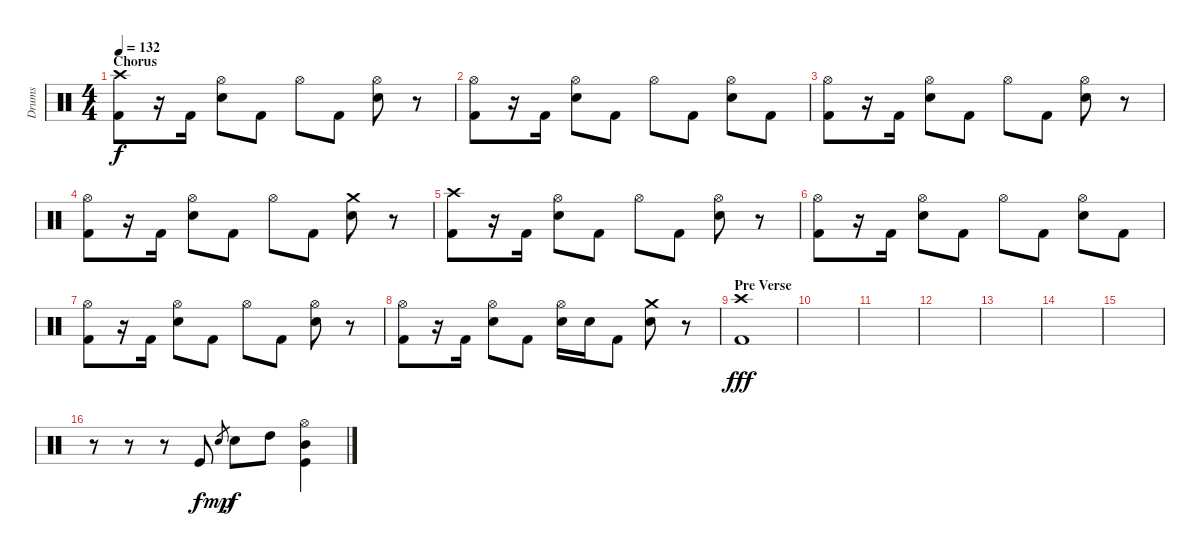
\track ("Drums" "Drums") {instrument percussion}
\staff {score}
\articulation defaults
\ts (4 4)
\section ("" "Chorus")
\tempo 132
\clef neutral
\ks c
("Crash high (hit)" "Kick (hit) 2").8{dy f} r.16 "Kick (hit) 2".16 ("Hi-Hat (open)" "Snare (hit) 2").8 "Kick (hit) 2".8 "Hi-Hat (open)".8 "Kick (hit) 2".8 ("Hi-Hat (open)" "Snare (hit) 2").8 r.8 |
("Hi-Hat (open)" "Kick (hit) 2").8 r.16 "Kick (hit) 2".16 ("Hi-Hat (open)" "Snare (hit) 2").8 "Kick (hit) 2".8 "Hi-Hat (open)".8 "Kick (hit) 2".8 ("Hi-Hat (open)" "Snare (hit) 2").8 "Kick (hit) 2".8 |
("Hi-Hat (open)" "Kick (hit) 2").8 r.16 "Kick (hit) 2".16 ("Hi-Hat (open)" "Snare (hit) 2").8 "Kick (hit) 2".8 "Hi-Hat (open)".8 "Kick (hit) 2".8 ("Hi-Hat (open)" "Snare (hit) 2").8 r.8 |
("Hi-Hat (open)" "Kick (hit) 2").8 r.16 "Kick (hit) 2".16 ("Hi-Hat (open)" "Snare (hit) 2").8 "Kick (hit) 2".8 "Hi-Hat (open)".8 "Kick (hit) 2".8 ("Crash medium (hit)" "Snare (hit) 2").8 r.8 |
("Crash high (hit)" "Kick (hit) 2").8 r.16 "Kick (hit) 2".16 ("Hi-Hat (open)" "Snare (hit) 2").8 "Kick (hit) 2".8 "Hi-Hat (open)".8 "Kick (hit) 2".8 ("Hi-Hat (open)" "Snare (hit) 2").8 r.8 |
("Hi-Hat (open)" "Kick (hit) 2").8 r.16 "Kick (hit) 2".16 ("Hi-Hat (open)" "Snare (hit) 2").8 "Kick (hit) 2".8 "Hi-Hat (open)".8 "Kick (hit) 2".8 ("Hi-Hat (open)" "Snare (hit) 2").8 "Kick (hit) 2".8 |
("Hi-Hat (open)" "Kick (hit) 2").8 r.16 "Kick (hit) 2".16 ("Hi-Hat (open)" "Snare (hit) 2").8 "Kick (hit) 2".8 "Hi-Hat (open)".8 "Kick (hit) 2".8 ("Hi-Hat (open)" "Snare (hit) 2").8 r.8 |
("Hi-Hat (open)" "Kick (hit) 2").8 r.16 "Kick (hit) 2".16 ("Hi-Hat (open)" "Snare (hit) 2").8 "Kick (hit) 2".8 ("Hi-Hat (open)" "Snare (hit) 2").16 "Snare (hit) 2".16 "Kick (hit) 2".8 ("Crash medium (hit)" "Snare (hit) 2").8 r.8 |
\section ("" "Pre Verse")
("Crash high (hit)" "Kick (hit) 2").1{dy fff} |
|
|
|
|
|
|
r.8 r.8 r.8 "Kick (hit)".8{dy f} "Snare (hit) 2".8{gr dy mp} "Snare (hit) 2".8{dy f} "High Tom (hit)".8 ("Hi-Hat (open)" "Mid Tom (hit)" "Kick (hit)").4
